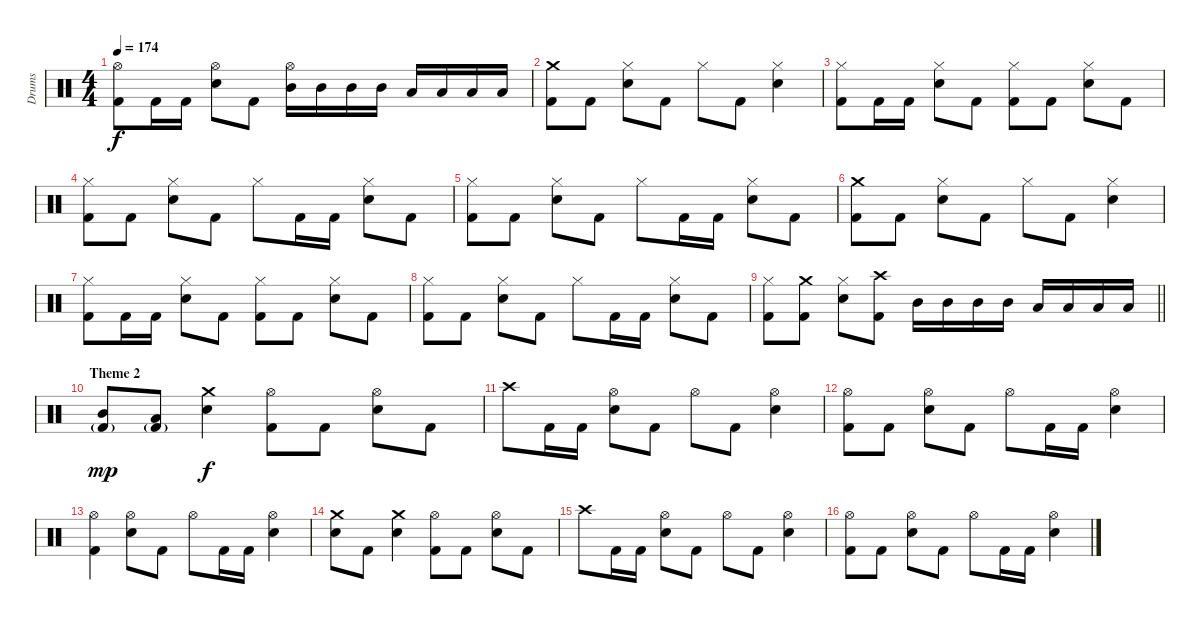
\track ("Drums" "Drums") {instrument percussion}
\staff {score}
\articulation defaults
\ts (4 4)
\tempo 174
\clef neutral
\ks c
("Hi-Hat (open)" "Kick (hit) 2").8{dy f} "Kick (hit) 2".16 "Kick (hit) 2".16 ("Hi-Hat (open)" "Snare (hit) 2").8 "Kick (hit) 2".8 ("Hi-Hat (open)" "Mid Tom (hit)").16 "Mid Tom (hit)".16 "Mid Tom (hit)".16 "Mid Tom (hit)".16 "Low Tom (hit)".16 "Low Tom (hit)".16 "Low Tom (hit)".16 "Low Tom (hit)".16 |
("Crash medium (hit)" "Kick (hit) 2").8 "Kick (hit) 2".8 ("Hi-Hat (closed)" "Snare (hit) 2").8 "Kick (hit) 2".8 "Hi-Hat (closed)".8 "Kick (hit) 2".8 ("Hi-Hat (closed)" "Snare (hit) 2").4 |
("Hi-Hat (closed)" "Kick (hit) 2").8 "Kick (hit) 2".16 "Kick (hit) 2".16 ("Hi-Hat (closed)" "Snare (hit) 2").8 "Kick (hit) 2".8 ("Hi-Hat (closed)" "Kick (hit) 2").8 "Kick (hit) 2".8 ("Hi-Hat (closed)" "Snare (hit) 2").8 "Kick (hit) 2".8 |
("Hi-Hat (closed)" "Kick (hit) 2").8 "Kick (hit) 2".8 ("Hi-Hat (closed)" "Snare (hit) 2").8 "Kick (hit) 2".8 "Hi-Hat (closed)".8 "Kick (hit) 2".16 "Kick (hit) 2".16 ("Hi-Hat (closed)" "Snare (hit) 2").8 "Kick (hit) 2".8 |
("Hi-Hat (closed)" "Kick (hit) 2").8 "Kick (hit) 2".8 ("Hi-Hat (closed)" "Snare (hit) 2").8 "Kick (hit) 2".8 "Hi-Hat (closed)".8 "Kick (hit) 2".16 "Kick (hit) 2".16 ("Hi-Hat (closed)" "Snare (hit) 2").8 "Kick (hit) 2".8 |
("Crash medium (hit)" "Kick (hit) 2").8 "Kick (hit) 2".8 ("Hi-Hat (closed)" "Snare (hit) 2").8 "Kick (hit) 2".8 "Hi-Hat (closed)".8 "Kick (hit) 2".8 ("Hi-Hat (closed)" "Snare (hit) 2").4 |
("Hi-Hat (closed)" "Kick (hit) 2").8 "Kick (hit) 2".16 "Kick (hit) 2".16 ("Hi-Hat (closed)" "Snare (hit) 2").8 "Kick (hit) 2".8 ("Hi-Hat (closed)" "Kick (hit) 2").8 "Kick (hit) 2".8 ("Hi-Hat (closed)" "Snare (hit) 2").8 "Kick (hit) 2".8 |
("Hi-Hat (closed)" "Kick (hit) 2").8 "Kick (hit) 2".8 ("Hi-Hat (closed)" "Snare (hit) 2").8 "Kick (hit) 2".8 "Hi-Hat (closed)".8 "Kick (hit) 2".16 "Kick (hit) 2".16 ("Hi-Hat (closed)" "Snare (hit) 2").8 "Kick (hit) 2".8 |
\barLineRight lightlight
("Hi-Hat (closed)" "Kick (hit) 2").8 ("Crash medium (hit)" "Kick (hit) 2").8 ("Hi-Hat (closed)" "Snare (hit) 2").8 ("Crash high (hit)" "Kick (hit) 2").8 "Mid Tom (hit)".16 "Mid Tom (hit)".16 "Mid Tom (hit)".16 "Mid Tom (hit)".16 "Low Tom (hit)".16 "Low Tom (hit)".16 "Low Tom (hit)".16 "Low Tom (hit)".16 |
\section ("" "Theme 2")
("Mid Tom (hit)" "Kick (hit) 2"{g}).8{dy mp} ("Low Tom (hit)" "Kick (hit) 2"{g}).8 ("Crash medium (hit)" "Snare (hit) 2").4{dy f} ("Hi-Hat (open)" "Kick (hit) 2").8 "Kick (hit) 2".8 ("Hi-Hat (open)" "Snare (hit) 2").8 "Kick (hit) 2".8 |
"Crash high (hit)".8 "Kick (hit) 2".16 "Kick (hit) 2".16 ("Hi-Hat (open)" "Snare (hit) 2").8 "Kick (hit) 2".8 "Hi-Hat (open)".8 "Kick (hit) 2".8 ("Hi-Hat (open)" "Snare (hit) 2").4 |
("Hi-Hat (open)" "Kick (hit) 2").8 "Kick (hit) 2".8 ("Hi-Hat (open)" "Snare (hit) 2").8 "Kick (hit) 2".8 "Hi-Hat (open)".8 "Kick (hit) 2".16 "Kick (hit) 2".16 ("Hi-Hat (open)" "Snare (hit) 2").4 |
("Hi-Hat (open)" "Kick (hit) 2").4 ("Hi-Hat (open)" "Snare (hit) 2").8 "Kick (hit) 2".8 "Hi-Hat (open)".8 "Kick (hit) 2".16 "Kick (hit) 2".16 ("Hi-Hat (open)" "Snare (hit) 2").4 |
("Crash medium (hit)" "Snare (hit) 2").8 "Kick (hit) 2".8 ("Crash medium (hit)" "Snare (hit) 2").4 ("Hi-Hat (open)" "Kick (hit) 2").8 "Kick (hit) 2".8 ("Hi-Hat (open)" "Snare (hit) 2").8 "Kick (hit) 2".8 |
"Crash high (hit)".8 "Kick (hit) 2".16 "Kick (hit) 2".16 ("Hi-Hat (open)" "Snare (hit) 2").8 "Kick (hit) 2".8 "Hi-Hat (open)".8 "Kick (hit) 2".8 ("Hi-Hat (open)" "Snare (hit) 2").4 |
("Hi-Hat (open)" "Kick (hit) 2").8 "Kick (hit) 2".8 ("Hi-Hat (open)" "Snare (hit) 2").8 "Kick (hit) 2".8 "Hi-Hat (open)".8 "Kick (hit) 2".16 "Kick (hit) 2".16 ("Hi-Hat (open)" "Snare (hit) 2").4
